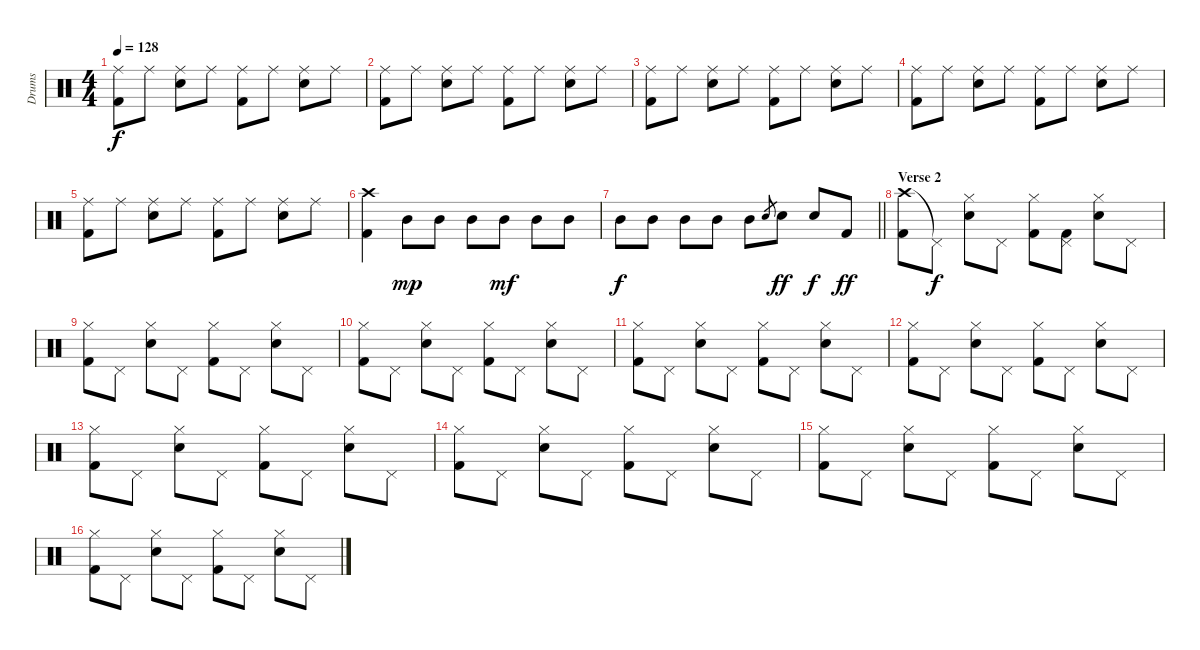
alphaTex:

\track ("Drums" "Drums") {instrument percussion}
\staff {score}
\articulation defaults
\ts (4 4)
\tempo 128
\clef neutral
\ks c
("Ride (middle)" "Kick (hit) 2").8{dy f} "Ride (middle)".8 ("Ride (middle)" "Snare (hit) 2").8 "Ride (middle)".8 ("Ride (middle)" "Kick (hit) 2").8 "Ride (middle)".8 ("Ride (middle)" "Snare (hit) 2").8 "Ride (middle)".8 |
("Ride (middle)" "Kick (hit) 2").8 "Ride (middle)".8 ("Ride (middle)" "Snare (hit) 2").8 "Ride (middle)".8 ("Ride (middle)" "Kick (hit) 2").8 "Ride (middle)".8 ("Ride (middle)" "Snare (hit) 2").8 "Ride (middle)".8 |
("Ride (middle)" "Kick (hit) 2").8 "Ride (middle)".8 ("Ride (middle)" "Snare (hit) 2").8 "Ride (middle)".8 ("Ride (middle)" "Kick (hit) 2").8 "Ride (middle)".8 ("Ride (middle)" "Snare (hit) 2").8 "Ride (middle)".8 |
("Ride (middle)" "Kick (hit) 2").8 "Ride (middle)".8 ("Ride (middle)" "Snare (hit) 2").8 "Ride (middle)".8 ("Ride (middle)" "Kick (hit) 2").8 "Ride (middle)".8 ("Ride (middle)" "Snare (hit) 2").8 "Ride (middle)".8 |
("Ride (middle)" "Kick (hit) 2").8 "Ride (middle)".8 ("Ride (middle)" "Snare (hit) 2").8 "Ride (middle)".8 ("Ride (middle)" "Kick (hit) 2").8 "Ride (middle)".8 ("Ride (middle)" "Snare (hit) 2").8 "Ride (middle)".8 |
("Crash high (hit)" "Kick (hit) 2").4 "Mid Tom (hit)".8{dy mp} "Mid Tom (hit)".8 "Mid Tom (hit)".8 "Mid Tom (hit)".8{dy mf} "Mid Tom (hit)".8 "Mid Tom (hit)".8 |
\barLineRight lightlight "Mid Tom (hit)".8{dy f} "Mid Tom (hit)".8 "Mid Tom (hit)".8 "Mid Tom (hit)".8 "Mid Tom (hit)".8 "Snare (hit) 2".8{gr} "Snare (hit) 2".8{dy ff} "Snare (hit) 2".8{dy f} "Kick (hit) 2".8{dy ff}
|
\section ("" "Verse 2")
("Crash high (hit)" "Kick (hit) 2").8 "Pedal Hi-Hat (hit)"{t}.8{dy f} ("Hi-Hat (closed)" "Snare (hit) 2").8 "Pedal Hi-Hat (hit)".8 ("Hi-Hat (closed)" "Kick (hit) 2").8 ("Pedal Hi-Hat (hit)" "Kick (hit) 2").8 ("Hi-Hat (closed)" "Snare (hit) 2").8 "Pedal Hi-Hat (hit)".8 |
("Hi-Hat (closed)" "Kick (hit) 2").8 "Pedal Hi-Hat (hit)".8 ("Hi-Hat (closed)" "Snare (hit) 2").8 "Pedal Hi-Hat (hit)".8 ("Hi-Hat (closed)" "Kick (hit) 2").8 "Pedal Hi-Hat (hit)".8 ("Hi-Hat (closed)" "Snare (hit) 2").8 "Pedal Hi-Hat (hit)".8 |
("Hi-Hat (closed)" "Kick (hit) 2").8 "Pedal Hi-Hat (hit)".8 ("Hi-Hat (closed)" "Snare (hit) 2").8 "Pedal Hi-Hat (hit)".8 ("Hi-Hat (closed)" "Kick (hit) 2").8 "Pedal Hi-Hat (hit)".8 ("Hi-Hat (closed)" "Snare (hit) 2").8 "Pedal Hi-Hat (hit)".8 |
("Hi-Hat (closed)" "Kick (hit) 2").8 "Pedal Hi-Hat (hit)".8 ("Hi-Hat (closed)" "Snare (hit) 2").8 "Pedal Hi-Hat (hit)".8 ("Hi-Hat (closed)" "Kick (hit) 2").8 "Pedal Hi-Hat (hit)".8 ("Hi-Hat (closed)" "Snare (hit) 2").8 "Pedal Hi-Hat (hit)".8 |
("Hi-Hat (closed)" "Kick (hit) 2").8 "Pedal Hi-Hat (hit)".8 ("Hi-Hat (closed)" "Snare (hit) 2").8 "Pedal Hi-Hat (hit)".8 ("Hi-Hat (closed)" "Kick (hit) 2").8 "Pedal Hi-Hat (hit)".8 ("Hi-Hat (closed)" "Snare (hit) 2").8 "Pedal Hi-Hat (hit)".8 |
("Hi-Hat (closed)" "Kick (hit) 2").8 "Pedal Hi-Hat (hit)".8 ("Hi-Hat (closed)" "Snare (hit) 2").8 "Pedal Hi-Hat (hit)".8 ("Hi-Hat (closed)" "Kick (hit) 2").8 "Pedal Hi-Hat (hit)".8 ("Hi-Hat (closed)" "Snare (hit) 2").8 "Pedal Hi-Hat (hit)".8 |
("Hi-Hat (closed)" "Kick (hit) 2").8 "Pedal Hi-Hat (hit)".8 ("Hi-Hat (closed)" "Snare (hit) 2").8 "Pedal Hi-Hat (hit)".8 ("Hi-Hat (closed)" "Kick (hit) 2").8 "Pedal Hi-Hat (hit)".8 ("Hi-Hat (closed)" "Snare (hit) 2").8 "Pedal Hi-Hat (hit)".8 |
("Hi-Hat (closed)" "Kick (hit) 2").8 "Pedal Hi-Hat (hit)".8 ("Hi-Hat (closed)" "Snare (hit) 2").8 "Pedal Hi-Hat (hit)".8 ("Hi-Hat (closed)" "Kick (hit) 2").8 "Pedal Hi-Hat (hit)".8 ("Hi-Hat (closed)" "Snare (hit) 2").8 "Pedal Hi-Hat (hit)".8 |
("Hi-Hat (closed)" "Kick (hit) 2").8 "Pedal Hi-Hat (hit)".8 ("Hi-Hat (closed)" "Snare (hit) 2").8 "Pedal Hi-Hat (hit)".8 ("Hi-Hat (closed)" "Kick (hit) 2").8 "Pedal Hi-Hat (hit)".8 ("Hi-Hat (closed)" "Snare (hit) 2").8 "Pedal Hi-Hat (hit)".8
